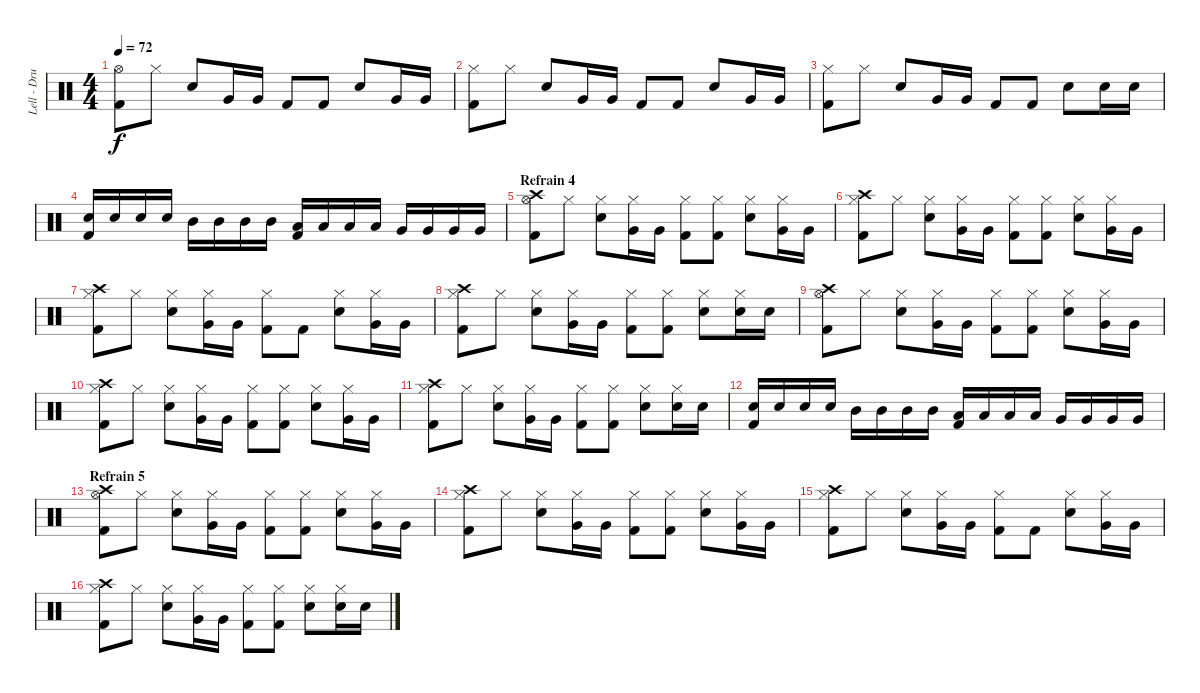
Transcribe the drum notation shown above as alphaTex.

\track ("Lell - Drums" "Lell - Dru") {instrument percussion}
\staff {score}
\articulation defaults
\ts (4 4)
\tempo 72
\clef neutral
\ks c
("Hi-Hat (open)" "Kick (hit) 2").8{dy f} "Hi-Hat (closed)".8 "Snare (hit) 2".8 "Very Low Tom (hit)".16 "Very Low Tom (hit)".16 "Kick (hit) 2".8 "Kick (hit) 2".8 "Snare (hit) 2".8 "Very Low Tom (hit)".16 "Very Low Tom (hit)".16 |
("Hi-Hat (closed)" "Kick (hit) 2").8 "Hi-Hat (closed)".8 "Snare (hit) 2".8 "Very Low Tom (hit)".16 "Very Low Tom (hit)".16 "Kick (hit) 2".8 "Kick (hit) 2".8 "Snare (hit) 2".8 "Very Low Tom (hit)".16 "Very Low Tom (hit)".16 |
("Hi-Hat (closed)" "Kick (hit) 2").8 "Hi-Hat (closed)".8 "Snare (hit) 2".8 "Very Low Tom (hit)".16 "Very Low Tom (hit)".16 "Kick (hit) 2".8 "Kick (hit) 2".8 "Snare (hit) 2".8 "Snare (hit) 2".16 "Snare (hit) 2".16 |
("Snare (hit) 2" "Kick (hit) 2").16 "Snare (hit) 2".16 "Snare (hit) 2".16 "Snare (hit) 2".16 "Mid Tom (hit)".16 "Mid Tom (hit)".16 "Mid Tom (hit)".16 "Mid Tom (hit)".16 ("Low Tom (hit)" "Kick (hit) 2").16 "Low Tom (hit)".16 "Low Tom (hit)".16 "Low Tom (hit)".16 "Very Low Tom (hit)".16 "Very Low Tom (hit)".16 "Very Low Tom (hit)".16 "Very Low Tom (hit)".16 |
\section ("" "Refrain 4")
("Crash high (hit)" "Hi-Hat (open)" "Kick (hit) 2").8 "Hi-Hat (closed)".8 ("Hi-Hat (closed)" "Snare (hit) 2").8 ("Hi-Hat (closed)" "Very Low Tom (hit)").16 "Very Low Tom (hit)".16 ("Hi-Hat (closed)" "Kick (hit) 2").8 ("Hi-Hat (closed)" "Kick (hit) 2").8 ("Hi-Hat (closed)" "Snare (hit) 2").8 ("Hi-Hat (closed)" "Very Low Tom (hit)").16 "Very Low Tom (hit)".16 |
("Crash high (hit)" "Hi-Hat (closed)" "Kick (hit) 2").8 "Hi-Hat (closed)".8 ("Hi-Hat (closed)" "Snare (hit) 2").8 ("Hi-Hat (closed)" "Very Low Tom (hit)").16 "Very Low Tom (hit)".16 ("Hi-Hat (closed)" "Kick (hit) 2").8 ("Hi-Hat (closed)" "Kick (hit) 2").8 ("Hi-Hat (closed)" "Snare (hit) 2").8 ("Hi-Hat (closed)" "Very Low Tom (hit)").16 "Very Low Tom (hit)".16 |
("Crash high (hit)" "Hi-Hat (closed)" "Kick (hit) 2").8 "Hi-Hat (closed)".8 ("Hi-Hat (closed)" "Snare (hit) 2").8 ("Hi-Hat (closed)" "Very Low Tom (hit)").16 "Very Low Tom (hit)".16 ("Hi-Hat (closed)" "Kick (hit) 2").8 "Kick (hit) 2".8 ("Hi-Hat (closed)" "Snare (hit) 2").8 ("Hi-Hat (closed)" "Very Low Tom (hit)").16 "Very Low Tom (hit)".16 |
("Crash high (hit)" "Hi-Hat (closed)" "Kick (hit) 2").8 "Hi-Hat (closed)".8 ("Hi-Hat (closed)" "Snare (hit) 2").8 ("Hi-Hat (closed)" "Very Low Tom (hit)").16 "Very Low Tom (hit)".16 ("Hi-Hat (closed)" "Kick (hit) 2").8 ("Hi-Hat (closed)" "Kick (hit) 2").8 ("Hi-Hat (closed)" "Snare (hit) 2").8 ("Hi-Hat (closed)" "Snare (hit) 2").16 "Snare (hit) 2".16 |
("Crash high (hit)" "Hi-Hat (open)" "Kick (hit) 2").8 "Hi-Hat (closed)".8 ("Hi-Hat (closed)" "Snare (hit) 2").8 ("Hi-Hat (closed)" "Very Low Tom (hit)").16 "Very Low Tom (hit)".16 ("Hi-Hat (closed)" "Kick (hit) 2").8 ("Hi-Hat (closed)" "Kick (hit) 2").8 ("Hi-Hat (closed)" "Snare (hit) 2").8 ("Hi-Hat (closed)" "Very Low Tom (hit)").16 "Very Low Tom (hit)".16 |
("Crash high (hit)" "Hi-Hat (closed)" "Kick (hit) 2").8 "Hi-Hat (closed)".8 ("Hi-Hat (closed)" "Snare (hit) 2").8 ("Hi-Hat (closed)" "Very Low Tom (hit)").16 "Very Low Tom (hit)".16 ("Hi-Hat (closed)" "Kick (hit) 2").8 ("Hi-Hat (closed)" "Kick (hit) 2").8 ("Hi-Hat (closed)" "Snare (hit) 2").8 ("Hi-Hat (closed)" "Very Low Tom (hit)").16 "Very Low Tom (hit)".16 |
("Crash high (hit)" "Hi-Hat (closed)" "Kick (hit) 2").8 "Hi-Hat (closed)".8 ("Hi-Hat (closed)" "Snare (hit) 2").8 ("Hi-Hat (closed)" "Very Low Tom (hit)").16 "Very Low Tom (hit)".16 ("Hi-Hat (closed)" "Kick (hit) 2").8 ("Hi-Hat (closed)" "Kick (hit) 2").8 ("Hi-Hat (closed)" "Snare (hit) 2").8 ("Hi-Hat (closed)" "Snare (hit) 2").16 "Snare (hit) 2".16 |
("Snare (hit) 2" "Kick (hit) 2").16 "Snare (hit) 2".16 "Snare (hit) 2".16 "Snare (hit) 2".16 "Mid Tom (hit)".16 "Mid Tom (hit)".16 "Mid Tom (hit)".16 "Mid Tom (hit)".16 ("Low Tom (hit)" "Kick (hit) 2").16 "Low Tom (hit)".16 "Low Tom (hit)".16 "Low Tom (hit)".16 "Very Low Tom (hit)".16 "Very Low Tom (hit)".16 "Very Low Tom (hit)".16 "Very Low Tom (hit)".16 |
\section ("" "Refrain 5")
("Crash high (hit)" "Hi-Hat (open)" "Kick (hit) 2").8 "Hi-Hat (closed)".8 ("Hi-Hat (closed)" "Snare (hit) 2").8 ("Hi-Hat (closed)" "Very Low Tom (hit)").16 "Very Low Tom (hit)".16 ("Hi-Hat (closed)" "Kick (hit) 2").8 ("Hi-Hat (closed)" "Kick (hit) 2").8 ("Hi-Hat (closed)" "Snare (hit) 2").8 ("Hi-Hat (closed)" "Very Low Tom (hit)").16 "Very Low Tom (hit)".16 |
("Crash high (hit)" "Hi-Hat (closed)" "Kick (hit) 2").8 "Hi-Hat (closed)".8 ("Hi-Hat (closed)" "Snare (hit) 2").8 ("Hi-Hat (closed)" "Very Low Tom (hit)").16 "Very Low Tom (hit)".16 ("Hi-Hat (closed)" "Kick (hit) 2").8 ("Hi-Hat (closed)" "Kick (hit) 2").8 ("Hi-Hat (closed)" "Snare (hit) 2").8 ("Hi-Hat (closed)" "Very Low Tom (hit)").16 "Very Low Tom (hit)".16 |
("Crash high (hit)" "Hi-Hat (closed)" "Kick (hit) 2").8 "Hi-Hat (closed)".8 ("Hi-Hat (closed)" "Snare (hit) 2").8 ("Hi-Hat (closed)" "Very Low Tom (hit)").16 "Very Low Tom (hit)".16 ("Hi-Hat (closed)" "Kick (hit) 2").8 "Kick (hit) 2".8 ("Hi-Hat (closed)" "Snare (hit) 2").8 ("Hi-Hat (closed)" "Very Low Tom (hit)").16 "Very Low Tom (hit)".16 |
("Crash high (hit)" "Hi-Hat (closed)" "Kick (hit) 2").8 "Hi-Hat (closed)".8 ("Hi-Hat (closed)" "Snare (hit) 2").8 ("Hi-Hat (closed)" "Very Low Tom (hit)").16 "Very Low Tom (hit)".16 ("Hi-Hat (closed)" "Kick (hit) 2").8 ("Hi-Hat (closed)" "Kick (hit) 2").8 ("Hi-Hat (closed)" "Snare (hit) 2").8 ("Hi-Hat (closed)" "Snare (hit) 2").16 "Snare (hit) 2".16
